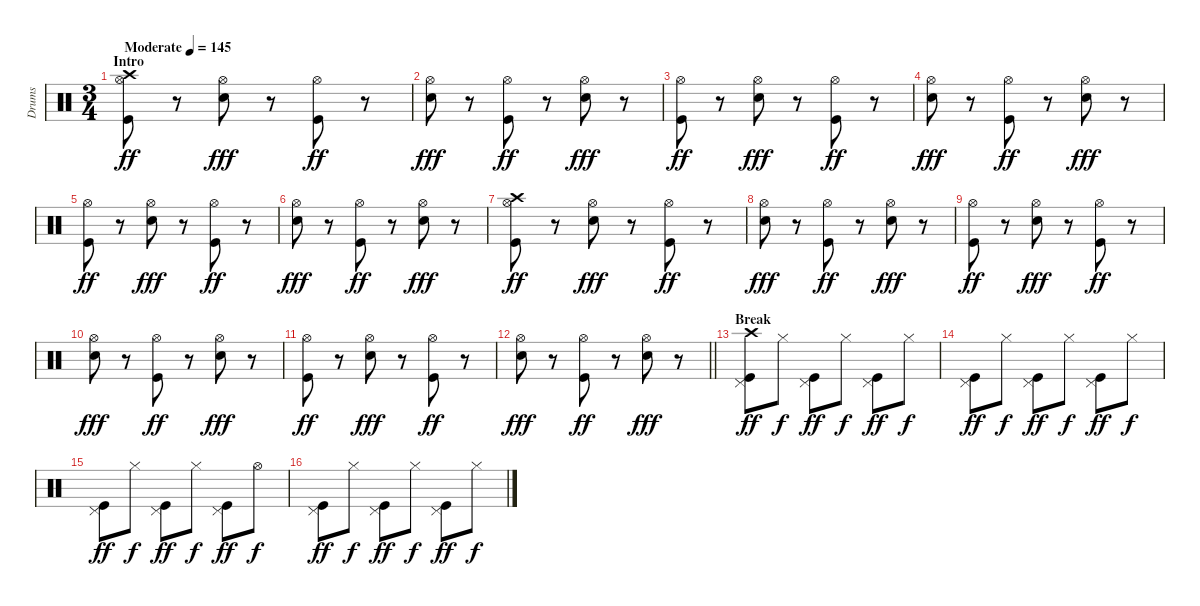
\track ("Drums" "Drums") {instrument percussion}
\staff {score}
\articulation defaults
\ts (3 4)
\section ("" "Intro")
\tempo (145 "Moderate")
\clef neutral
\ks c
("Crash high (hit)" "Hi-Hat (open)" "Kick (hit)").8{dy ff} r.8 ("Hi-Hat (open)" "Electric Snare (hit)").8{dy fff} r.8 ("Hi-Hat (open)" "Kick (hit)").8{dy ff} r.8 |
("Hi-Hat (open)" "Electric Snare (hit)").8{dy fff} r.8 ("Hi-Hat (open)" "Kick (hit)").8{dy ff} r.8 ("Hi-Hat (open)" "Electric Snare (hit)").8{dy fff} r.8 |
("Hi-Hat (open)" "Kick (hit)").8{dy ff} r.8 ("Hi-Hat (open)" "Electric Snare (hit)").8{dy fff} r.8 ("Hi-Hat (open)" "Kick (hit)").8{dy ff} r.8 |
("Hi-Hat (open)" "Electric Snare (hit)").8{dy fff} r.8 ("Hi-Hat (open)" "Kick (hit)").8{dy ff} r.8 ("Hi-Hat (open)" "Electric Snare (hit)").8{dy fff} r.8 |
("Hi-Hat (open)" "Kick (hit)").8{dy ff} r.8 ("Hi-Hat (open)" "Electric Snare (hit)").8{dy fff} r.8 ("Hi-Hat (open)" "Kick (hit)").8{dy ff} r.8 |
("Hi-Hat (open)" "Electric Snare (hit)").8{dy fff} r.8 ("Hi-Hat (open)" "Kick (hit)").8{dy ff} r.8 ("Hi-Hat (open)" "Electric Snare (hit)").8{dy fff} r.8 |
("Crash high (hit)" "Hi-Hat (open)" "Kick (hit)").8{dy ff} r.8 ("Hi-Hat (open)" "Electric Snare (hit)").8{dy fff} r.8 ("Hi-Hat (open)" "Kick (hit)").8{dy ff} r.8 |
("Hi-Hat (open)" "Electric Snare (hit)").8{dy fff} r.8 ("Hi-Hat (open)" "Kick (hit)").8{dy ff} r.8 ("Hi-Hat (open)" "Electric Snare (hit)").8{dy fff} r.8 |
("Hi-Hat (open)" "Kick (hit)").8{dy ff} r.8 ("Hi-Hat (open)" "Electric Snare (hit)").8{dy fff} r.8 ("Hi-Hat (open)" "Kick (hit)").8{dy ff} r.8 |
("Hi-Hat (open)" "Electric Snare (hit)").8{dy fff} r.8 ("Hi-Hat (open)" "Kick (hit)").8{dy ff} r.8 ("Hi-Hat (open)" "Electric Snare (hit)").8{dy fff} r.8 |
("Hi-Hat (open)" "Kick (hit)").8{dy ff} r.8 ("Hi-Hat (open)" "Electric Snare (hit)").8{dy fff} r.8 ("Hi-Hat (open)" "Kick (hit)").8{dy ff} r.8 |
\barLineRight lightlight
("Hi-Hat (open)" "Electric Snare (hit)").8{dy fff} r.8 ("Hi-Hat (open)" "Kick (hit)").8{dy ff} r.8 ("Hi-Hat (open)" "Electric Snare (hit)").8{dy fff} r.8 |
\section ("" "Break")
("Crash high (hit)" "Pedal Hi-Hat (hit)" "Kick (hit)").8{dy ff} "Hi-Hat (closed)".8{dy f} ("Pedal Hi-Hat (hit)" "Kick (hit)").8{dy ff} "Hi-Hat (closed)".8{dy f} ("Pedal Hi-Hat (hit)" "Kick (hit)").8{dy ff} "Hi-Hat (closed)".8{dy f} |
("Pedal Hi-Hat (hit)" "Kick (hit)").8{dy ff} "Hi-Hat (closed)".8{dy f} ("Pedal Hi-Hat (hit)" "Kick (hit)").8{dy ff} "Hi-Hat (closed)".8{dy f} ("Pedal Hi-Hat (hit)" "Kick (hit)").8{dy ff} "Hi-Hat (closed)".8{dy f} |
("Pedal Hi-Hat (hit)" "Kick (hit)").8{dy ff} "Hi-Hat (closed)".8{dy f} ("Pedal Hi-Hat (hit)" "Kick (hit)").8{dy ff} "Hi-Hat (closed)".8{dy f} ("Pedal Hi-Hat (hit)" "Kick (hit)").8{dy ff} "Hi-Hat (open)".8{dy f} |
("Pedal Hi-Hat (hit)" "Kick (hit)").8{dy ff} "Hi-Hat (closed)".8{dy f} ("Pedal Hi-Hat (hit)" "Kick (hit)").8{dy ff} "Hi-Hat (closed)".8{dy f} ("Pedal Hi-Hat (hit)" "Kick (hit)").8{dy ff} "Hi-Hat (closed)".8{dy f}
